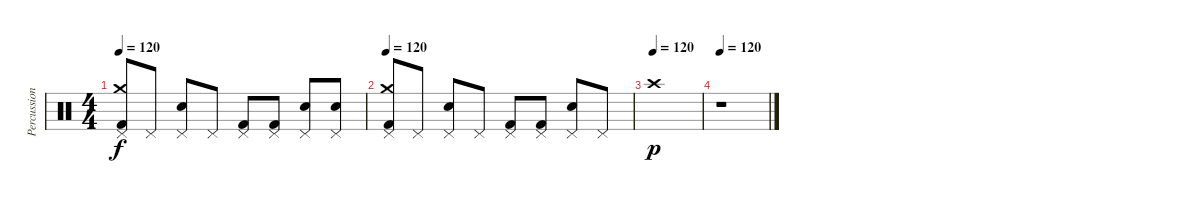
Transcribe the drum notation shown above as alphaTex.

\track ("Percussions" "Percussion") {instrument percussion}
\staff {score}
\articulation defaults
\ts (4 4)
\tempo 120
\clef neutral
\ks c
("Pedal Hi-Hat (hit)" "Crash medium (hit)" "Kick (hit) 2").8{dy f} "Pedal Hi-Hat (hit)".8 ("Pedal Hi-Hat (hit)" "Electric Snare (hit)").8 "Pedal Hi-Hat (hit)".8 ("Pedal Hi-Hat (hit)" "Kick (hit) 2").8 ("Pedal Hi-Hat (hit)" "Kick (hit) 2").8 ("Pedal Hi-Hat (hit)" "Electric Snare (hit)").8 ("Pedal Hi-Hat (hit)" "Electric Snare (hit)").8 |
\tempo 120
("Pedal Hi-Hat (hit)" "Crash medium (hit)" "Kick (hit) 2").8 "Pedal Hi-Hat (hit)".8 ("Pedal Hi-Hat (hit)" "Electric Snare (hit)").8 "Pedal Hi-Hat (hit)".8 ("Pedal Hi-Hat (hit)" "Kick (hit) 2").8 ("Pedal Hi-Hat (hit)" "Kick (hit) 2").8 ("Pedal Hi-Hat (hit)" "Electric Snare (hit)").8 "Pedal Hi-Hat (hit)".8 |
\tempo (120)
"Crash high (hit)".1{dy p} |
\tempo 120
r.1
